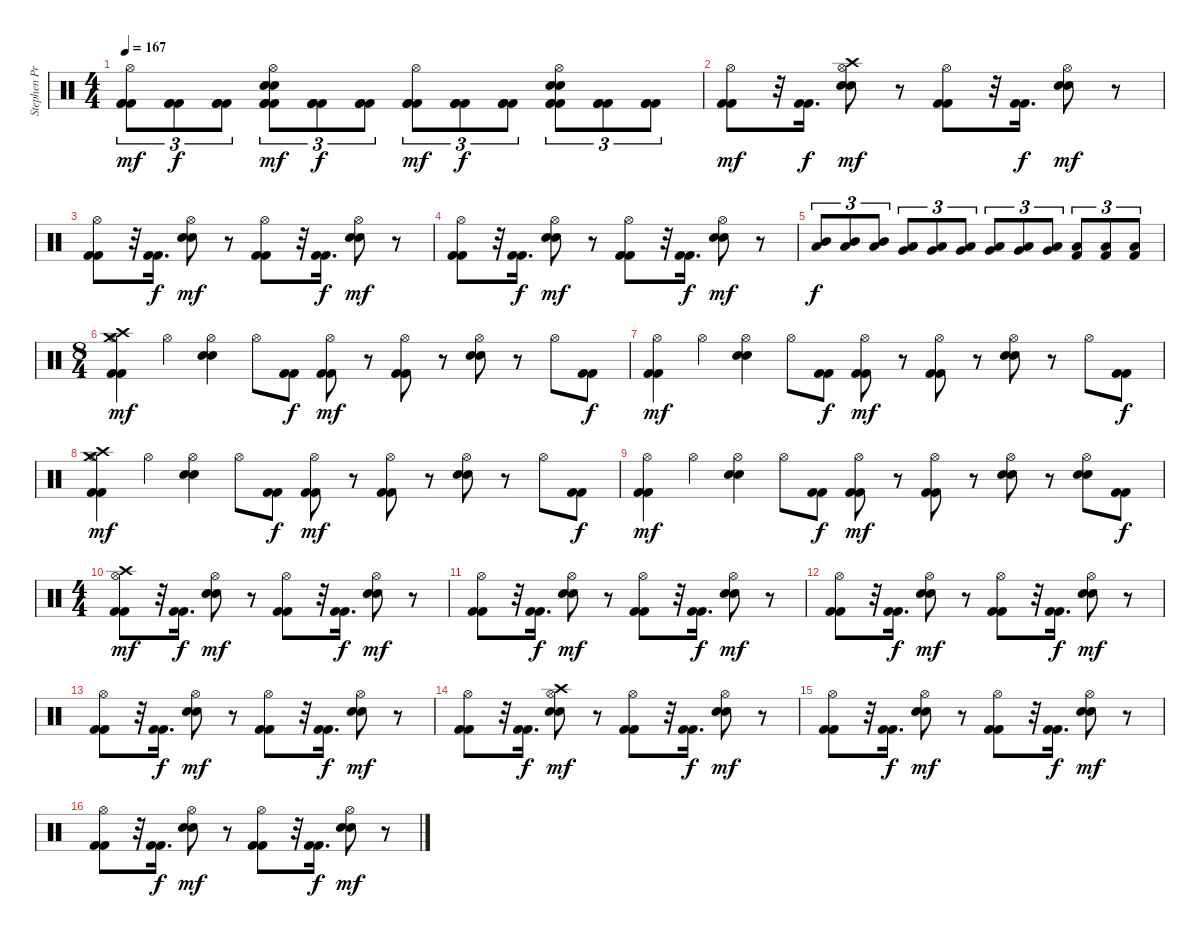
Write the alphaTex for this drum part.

\track ("Stephen Priestly  (Drums)" "Stephen Pr") {instrument percussion}
\staff {score}
\articulation defaults
\ts (4 4)
\tempo 167
\clef neutral
\ks c
("Hi-Hat (open)" "Kick (hit) 2" "Kick (hit) 2" "Kick (hit) 2").8{tu (3 2) dy mf} ("Kick (hit) 2" "Kick (hit) 2" "Kick (hit) 2").8{tu (3 2) dy f} ("Kick (hit) 2" "Kick (hit) 2" "Kick (hit) 2").8{tu (3 2)} ("Electric Snare (hit)" "Hi-Hat (open)" "Electric Snare (hit)" "Kick (hit) 2" "Kick (hit) 2" "Kick (hit) 2").8{tu (3 2) dy mf} ("Kick (hit) 2" "Kick (hit) 2" "Kick (hit) 2").8{tu (3 2) dy f} ("Kick (hit) 2" "Kick (hit) 2" "Kick (hit) 2").8{tu (3 2)} ("Hi-Hat (open)" "Kick (hit) 2" "Kick (hit) 2" "Kick (hit) 2").8{tu (3 2) dy mf} ("Kick (hit) 2" "Kick (hit) 2" "Kick (hit) 2").8{tu (3 2) dy f} ("Kick (hit) 2" "Kick (hit) 2" "Kick (hit) 2").8{tu (3 2)} ("Electric Snare (hit)" "Hi-Hat (open)" "Electric Snare (hit)" "Kick (hit) 2" "Kick (hit) 2" "Kick (hit) 2").8{tu (3 2)} ("Kick (hit) 2" "Kick (hit) 2" "Kick (hit) 2").8{tu (3 2)} ("Kick (hit) 2" "Kick (hit) 2" "Kick (hit) 2").8{tu (3 2)} |
("Hi-Hat (open)" "Kick (hit) 2" "Kick (hit) 2").8{dy mf} r.32 ("Kick (hit) 2" "Kick (hit) 2").16{d dy f} ("Crash high (hit)" "Hi-Hat (open)" "Electric Snare (hit)" "Electric Snare (hit)").8{dy mf} r.8 ("Hi-Hat (open)" "Kick (hit) 2" "Kick (hit) 2").8 r.32 ("Kick (hit) 2" "Kick (hit) 2").16{d dy f} ("Hi-Hat (open)" "Electric Snare (hit)" "Electric Snare (hit)").8{dy mf} r.8 |
("Hi-Hat (open)" "Kick (hit) 2" "Kick (hit) 2").8 r.32 ("Kick (hit) 2" "Kick (hit) 2").16{d dy f} ("Hi-Hat (open)" "Electric Snare (hit)" "Electric Snare (hit)").8{dy mf} r.8 ("Hi-Hat (open)" "Kick (hit) 2" "Kick (hit) 2").8 r.32 ("Kick (hit) 2" "Kick (hit) 2").16{d dy f} ("Hi-Hat (open)" "Electric Snare (hit)" "Electric Snare (hit)").8{dy mf} r.8 |
("Hi-Hat (open)" "Kick (hit) 2" "Kick (hit) 2").8 r.32 ("Kick (hit) 2" "Kick (hit) 2").16{d dy f} ("Hi-Hat (open)" "Electric Snare (hit)" "Electric Snare (hit)").8{dy mf} r.8 ("Hi-Hat (open)" "Kick (hit) 2" "Kick (hit) 2").8 r.32 ("Kick (hit) 2" "Kick (hit) 2").16{d dy f} ("Hi-Hat (open)" "Electric Snare (hit)" "Electric Snare (hit)").8{dy mf} r.8 |
("Mid Tom (hit)" "Low Tom (hit)").8{tu (3 2) dy f} ("Mid Tom (hit)" "Low Tom (hit)").8{tu (3 2)} ("Mid Tom (hit)" "Low Tom (hit)").8{tu (3 2)} ("Low Tom (hit)" "Very Low Tom (hit)").8{tu (3 2)} ("Low Tom (hit)" "Very Low Tom (hit)").8{tu (3 2)} ("Low Tom (hit)" "Very Low Tom (hit)").8{tu (3 2)} ("Very Low Tom (hit)" "Low Floor Tom (hit)").8{tu (3 2)} ("Very Low Tom (hit)" "Low Floor Tom (hit)").8{tu (3 2)} ("Very Low Tom (hit)" "Low Floor Tom (hit)").8{tu (3 2)} ("Low Floor Tom (hit)" "Kick (hit) 2").8{tu (3 2)} ("Low Floor Tom (hit)" "Kick (hit) 2").8{tu (3 2)} ("Low Floor Tom (hit)" "Kick (hit) 2").8{tu (3 2)} |
\ts (8 4)
("Crash high (hit)" "Crash medium (hit)" "Hi-Hat (open)" "Kick (hit) 2" "Kick (hit) 2").4{dy mf} "Hi-Hat (open)".4 ("Hi-Hat (open)" "Electric Snare (hit)" "Electric Snare (hit)").4 "Hi-Hat (open)".8 ("Kick (hit) 2" "Kick (hit) 2").8{dy f} ("Hi-Hat (open)" "Kick (hit) 2" "Kick (hit) 2").8{dy mf} r.8 ("Hi-Hat (open)" "Kick (hit) 2" "Kick (hit) 2").8 r.8 ("Hi-Hat (open)" "Electric Snare (hit)" "Electric Snare (hit)").8 r.8 "Hi-Hat (open)".8 ("Kick (hit) 2" "Kick (hit) 2").8{dy f} |
("Hi-Hat (open)" "Kick (hit) 2" "Kick (hit) 2").4{dy mf} "Hi-Hat (open)".4 ("Hi-Hat (open)" "Electric Snare (hit)" "Electric Snare (hit)").4 "Hi-Hat (open)".8 ("Kick (hit) 2" "Kick (hit) 2").8{dy f} ("Hi-Hat (open)" "Kick (hit) 2" "Kick (hit) 2").8{dy mf} r.8 ("Hi-Hat (open)" "Kick (hit) 2" "Kick (hit) 2").8 r.8 ("Hi-Hat (open)" "Electric Snare (hit)" "Electric Snare (hit)").8 r.8 "Hi-Hat (open)".8 ("Kick (hit) 2" "Kick (hit) 2").8{dy f} |
("Crash high (hit)" "Crash medium (hit)" "Hi-Hat (open)" "Kick (hit) 2" "Kick (hit) 2").4{dy mf} "Hi-Hat (open)".4 ("Hi-Hat (open)" "Electric Snare (hit)" "Electric Snare (hit)").4 "Hi-Hat (open)".8 ("Kick (hit) 2" "Kick (hit) 2").8{dy f} ("Hi-Hat (open)" "Kick (hit) 2" "Kick (hit) 2").8{dy mf} r.8 ("Hi-Hat (open)" "Kick (hit) 2" "Kick (hit) 2").8 r.8 ("Hi-Hat (open)" "Electric Snare (hit)" "Electric Snare (hit)").8 r.8 "Hi-Hat (open)".8 ("Kick (hit) 2" "Kick (hit) 2").8{dy f} |
("Hi-Hat (open)" "Kick (hit) 2" "Kick (hit) 2").4{dy mf} "Hi-Hat (open)".4 ("Hi-Hat (open)" "Electric Snare (hit)" "Electric Snare (hit)").4 "Hi-Hat (open)".8 ("Kick (hit) 2" "Kick (hit) 2").8{dy f} ("Hi-Hat (open)" "Kick (hit) 2" "Kick (hit) 2").8{dy mf} r.8 ("Hi-Hat (open)" "Kick (hit) 2" "Kick (hit) 2").8 r.8 ("Hi-Hat (open)" "Electric Snare (hit)" "Electric Snare (hit)").8 r.8 ("Hi-Hat (open)" "Electric Snare (hit)" "Electric Snare (hit)").8 ("Kick (hit) 2" "Kick (hit) 2").8{dy f} |
\ts (4 4)
("Crash high (hit)" "Hi-Hat (open)" "Kick (hit) 2" "Kick (hit) 2").8{dy mf} r.32 ("Kick (hit) 2" "Kick (hit) 2").16{d dy f} ("Hi-Hat (open)" "Electric Snare (hit)" "Electric Snare (hit)").8{dy mf} r.8 ("Hi-Hat (open)" "Kick (hit) 2" "Kick (hit) 2").8 r.32 ("Kick (hit) 2" "Kick (hit) 2").16{d dy f} ("Hi-Hat (open)" "Electric Snare (hit)" "Electric Snare (hit)").8{dy mf} r.8 |
("Hi-Hat (open)" "Kick (hit) 2" "Kick (hit) 2").8 r.32 ("Kick (hit) 2" "Kick (hit) 2").16{d dy f} ("Hi-Hat (open)" "Electric Snare (hit)" "Electric Snare (hit)").8{dy mf} r.8 ("Hi-Hat (open)" "Kick (hit) 2" "Kick (hit) 2").8 r.32 ("Kick (hit) 2" "Kick (hit) 2").16{d dy f} ("Hi-Hat (open)" "Electric Snare (hit)" "Electric Snare (hit)").8{dy mf} r.8 |
("Hi-Hat (open)" "Kick (hit) 2" "Kick (hit) 2").8 r.32 ("Kick (hit) 2" "Kick (hit) 2").16{d dy f} ("Hi-Hat (open)" "Electric Snare (hit)" "Electric Snare (hit)").8{dy mf} r.8 ("Hi-Hat (open)" "Kick (hit) 2" "Kick (hit) 2").8 r.32 ("Kick (hit) 2" "Kick (hit) 2").16{d dy f} ("Hi-Hat (open)" "Electric Snare (hit)" "Electric Snare (hit)").8{dy mf} r.8 |
("Hi-Hat (open)" "Kick (hit) 2" "Kick (hit) 2").8 r.32 ("Kick (hit) 2" "Kick (hit) 2").16{d dy f} ("Hi-Hat (open)" "Electric Snare (hit)" "Electric Snare (hit)").8{dy mf} r.8 ("Hi-Hat (open)" "Kick (hit) 2" "Kick (hit) 2").8 r.32 ("Kick (hit) 2" "Kick (hit) 2").16{d dy f} ("Hi-Hat (open)" "Electric Snare (hit)" "Electric Snare (hit)").8{dy mf} r.8 |
("Hi-Hat (open)" "Kick (hit) 2" "Kick (hit) 2").8 r.32 ("Kick (hit) 2" "Kick (hit) 2").16{d dy f} ("Crash high (hit)" "Hi-Hat (open)" "Electric Snare (hit)" "Electric Snare (hit)").8{dy mf} r.8 ("Hi-Hat (open)" "Kick (hit) 2" "Kick (hit) 2").8 r.32 ("Kick (hit) 2" "Kick (hit) 2").16{d dy f} ("Hi-Hat (open)" "Electric Snare (hit)" "Electric Snare (hit)").8{dy mf} r.8 |
("Hi-Hat (open)" "Kick (hit) 2" "Kick (hit) 2").8 r.32 ("Kick (hit) 2" "Kick (hit) 2").16{d dy f} ("Hi-Hat (open)" "Electric Snare (hit)" "Electric Snare (hit)").8{dy mf} r.8 ("Hi-Hat (open)" "Kick (hit) 2" "Kick (hit) 2").8 r.32 ("Kick (hit) 2" "Kick (hit) 2").16{d dy f} ("Hi-Hat (open)" "Electric Snare (hit)" "Electric Snare (hit)").8{dy mf} r.8 |
("Hi-Hat (open)" "Kick (hit) 2" "Kick (hit) 2").8 r.32 ("Kick (hit) 2" "Kick (hit) 2").16{d dy f} ("Hi-Hat (open)" "Electric Snare (hit)" "Electric Snare (hit)").8{dy mf} r.8 ("Hi-Hat (open)" "Kick (hit) 2" "Kick (hit) 2").8 r.32 ("Kick (hit) 2" "Kick (hit) 2").16{d dy f} ("Hi-Hat (open)" "Electric Snare (hit)" "Electric Snare (hit)").8{dy mf} r.8
